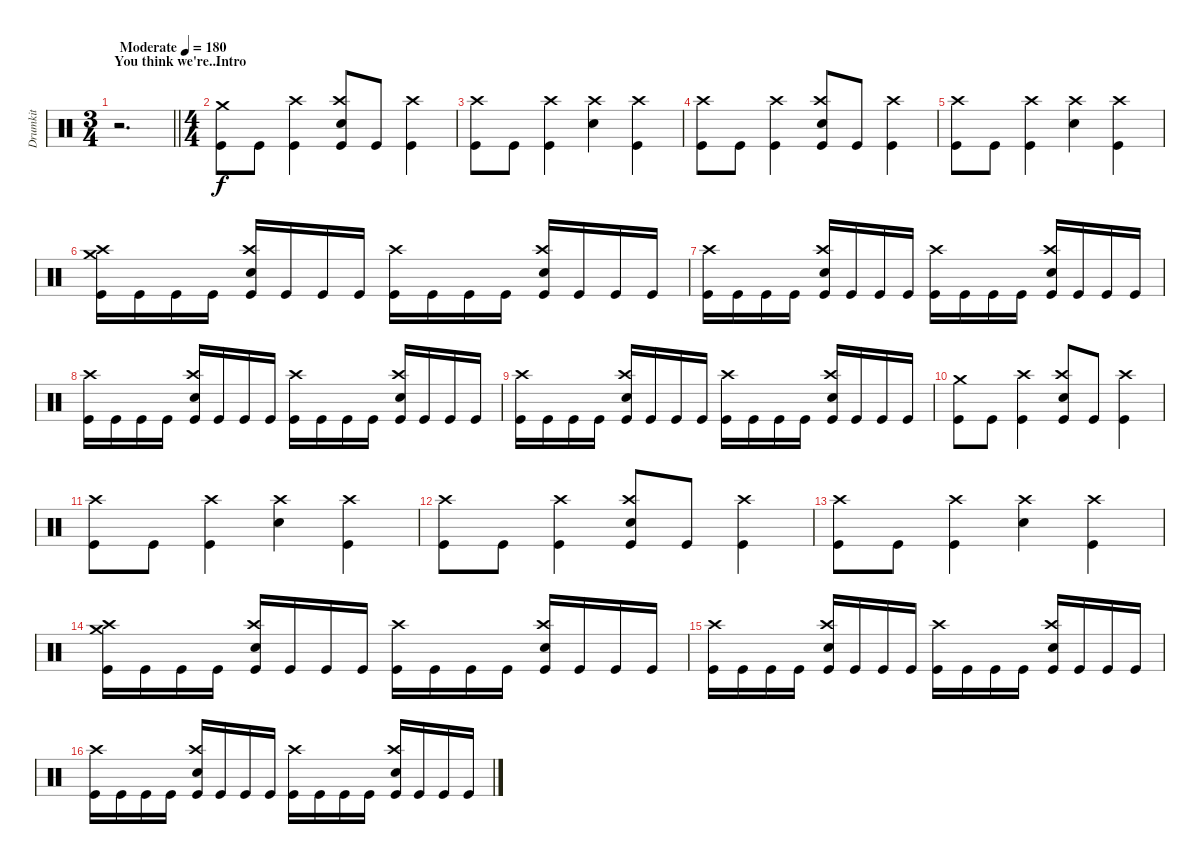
\track ("Drumkit" "Drumkit") {instrument percussion}
\staff {score}
\articulation defaults
\ts (3 4)
\section ("" "You think we're...")
\tempo (180 "Moderate")
\clef neutral
\barLineRight lightlight
\ks c
r.2{d dy f} |
\ts (4 4)
\section ("" "Intro")
("Crash medium (hit)" "Kick (hit)").8 "Kick (hit)".8 ("Crash high (hit)" "Kick (hit)").4 ("Crash high (hit)" "Snare (hit) 2" "Kick (hit)").8 "Kick (hit)".8 ("Crash high (hit)" "Kick (hit)").4 |
("Crash high (hit)" "Kick (hit)").8 "Kick (hit)".8 ("Crash high (hit)" "Kick (hit)").4 ("Crash high (hit)" "Snare (hit) 2").4 ("Crash high (hit)" "Kick (hit)").4 |
("Crash high (hit)" "Kick (hit)").8 "Kick (hit)".8 ("Crash high (hit)" "Kick (hit)").4 ("Crash high (hit)" "Snare (hit) 2" "Kick (hit)").8 "Kick (hit)".8 ("Crash high (hit)" "Kick (hit)").4 |
("Crash high (hit)" "Kick (hit)").8 "Kick (hit)".8 ("Crash high (hit)" "Kick (hit)").4 ("Crash high (hit)" "Snare (hit) 2").4 ("Crash high (hit)" "Kick (hit)").4 |
("Crash medium (hit)" "Crash high (hit)" "Kick (hit)").16 "Kick (hit)".16 "Kick (hit)".16 "Kick (hit)".16 ("Crash high (hit)" "Snare (hit) 2" "Kick (hit)").16 "Kick (hit)".16 "Kick (hit)".16 "Kick (hit)".16 ("Crash high (hit)" "Kick (hit)").16 "Kick (hit)".16 "Kick (hit)".16 "Kick (hit)".16 ("Crash high (hit)" "Snare (hit) 2" "Kick (hit)").16 "Kick (hit)".16 "Kick (hit)".16 "Kick (hit)".16 |
("Crash high (hit)" "Kick (hit)").16 "Kick (hit)".16 "Kick (hit)".16 "Kick (hit)".16 ("Crash high (hit)" "Snare (hit) 2" "Kick (hit)").16 "Kick (hit)".16 "Kick (hit)".16 "Kick (hit)".16 ("Crash high (hit)" "Kick (hit)").16 "Kick (hit)".16 "Kick (hit)".16 "Kick (hit)".16 ("Crash high (hit)" "Snare (hit) 2" "Kick (hit)").16 "Kick (hit)".16 "Kick (hit)".16 "Kick (hit)".16 |
("Crash high (hit)" "Kick (hit)").16 "Kick (hit)".16 "Kick (hit)".16 "Kick (hit)".16 ("Crash high (hit)" "Snare (hit) 2" "Kick (hit)").16 "Kick (hit)".16 "Kick (hit)".16 "Kick (hit)".16 ("Crash high (hit)" "Kick (hit)").16 "Kick (hit)".16 "Kick (hit)".16 "Kick (hit)".16 ("Crash high (hit)" "Snare (hit) 2" "Kick (hit)").16 "Kick (hit)".16 "Kick (hit)".16 "Kick (hit)".16 |
("Crash high (hit)" "Kick (hit)").16 "Kick (hit)".16 "Kick (hit)".16 "Kick (hit)".16 ("Crash high (hit)" "Snare (hit) 2" "Kick (hit)").16 "Kick (hit)".16 "Kick (hit)".16 "Kick (hit)".16 ("Crash high (hit)" "Kick (hit)").16 "Kick (hit)".16 "Kick (hit)".16 "Kick (hit)".16 ("Crash high (hit)" "Snare (hit) 2" "Kick (hit)").16 "Kick (hit)".16 "Kick (hit)".16 "Kick (hit)".16 |
("Crash medium (hit)" "Kick (hit)").8 "Kick (hit)".8 ("Crash high (hit)" "Kick (hit)").4 ("Crash high (hit)" "Snare (hit) 2" "Kick (hit)").8 "Kick (hit)".8 ("Crash high (hit)" "Kick (hit)").4 |
("Crash high (hit)" "Kick (hit)").8 "Kick (hit)".8 ("Crash high (hit)" "Kick (hit)").4 ("Crash high (hit)" "Snare (hit) 2").4 ("Crash high (hit)" "Kick (hit)").4 |
("Crash high (hit)" "Kick (hit)").8 "Kick (hit)".8 ("Crash high (hit)" "Kick (hit)").4 ("Crash high (hit)" "Snare (hit) 2" "Kick (hit)").8 "Kick (hit)".8 ("Crash high (hit)" "Kick (hit)").4 |
("Crash high (hit)" "Kick (hit)").8 "Kick (hit)".8 ("Crash high (hit)" "Kick (hit)").4 ("Crash high (hit)" "Snare (hit) 2").4 ("Crash high (hit)" "Kick (hit)").4 |
("Crash medium (hit)" "Crash high (hit)" "Kick (hit)").16 "Kick (hit)".16 "Kick (hit)".16 "Kick (hit)".16 ("Crash high (hit)" "Snare (hit) 2" "Kick (hit)").16 "Kick (hit)".16 "Kick (hit)".16 "Kick (hit)".16 ("Crash high (hit)" "Kick (hit)").16 "Kick (hit)".16 "Kick (hit)".16 "Kick (hit)".16 ("Crash high (hit)" "Snare (hit) 2" "Kick (hit)").16 "Kick (hit)".16 "Kick (hit)".16 "Kick (hit)".16 |
("Crash high (hit)" "Kick (hit)").16 "Kick (hit)".16 "Kick (hit)".16 "Kick (hit)".16 ("Crash high (hit)" "Snare (hit) 2" "Kick (hit)").16 "Kick (hit)".16 "Kick (hit)".16 "Kick (hit)".16 ("Crash high (hit)" "Kick (hit)").16 "Kick (hit)".16 "Kick (hit)".16 "Kick (hit)".16 ("Crash high (hit)" "Snare (hit) 2" "Kick (hit)").16 "Kick (hit)".16 "Kick (hit)".16 "Kick (hit)".16 |
("Crash high (hit)" "Kick (hit)").16 "Kick (hit)".16 "Kick (hit)".16 "Kick (hit)".16 ("Crash high (hit)" "Snare (hit) 2" "Kick (hit)").16 "Kick (hit)".16 "Kick (hit)".16 "Kick (hit)".16 ("Crash high (hit)" "Kick (hit)").16 "Kick (hit)".16 "Kick (hit)".16 "Kick (hit)".16 ("Crash high (hit)" "Snare (hit) 2" "Kick (hit)").16 "Kick (hit)".16 "Kick (hit)".16 "Kick (hit)".16
